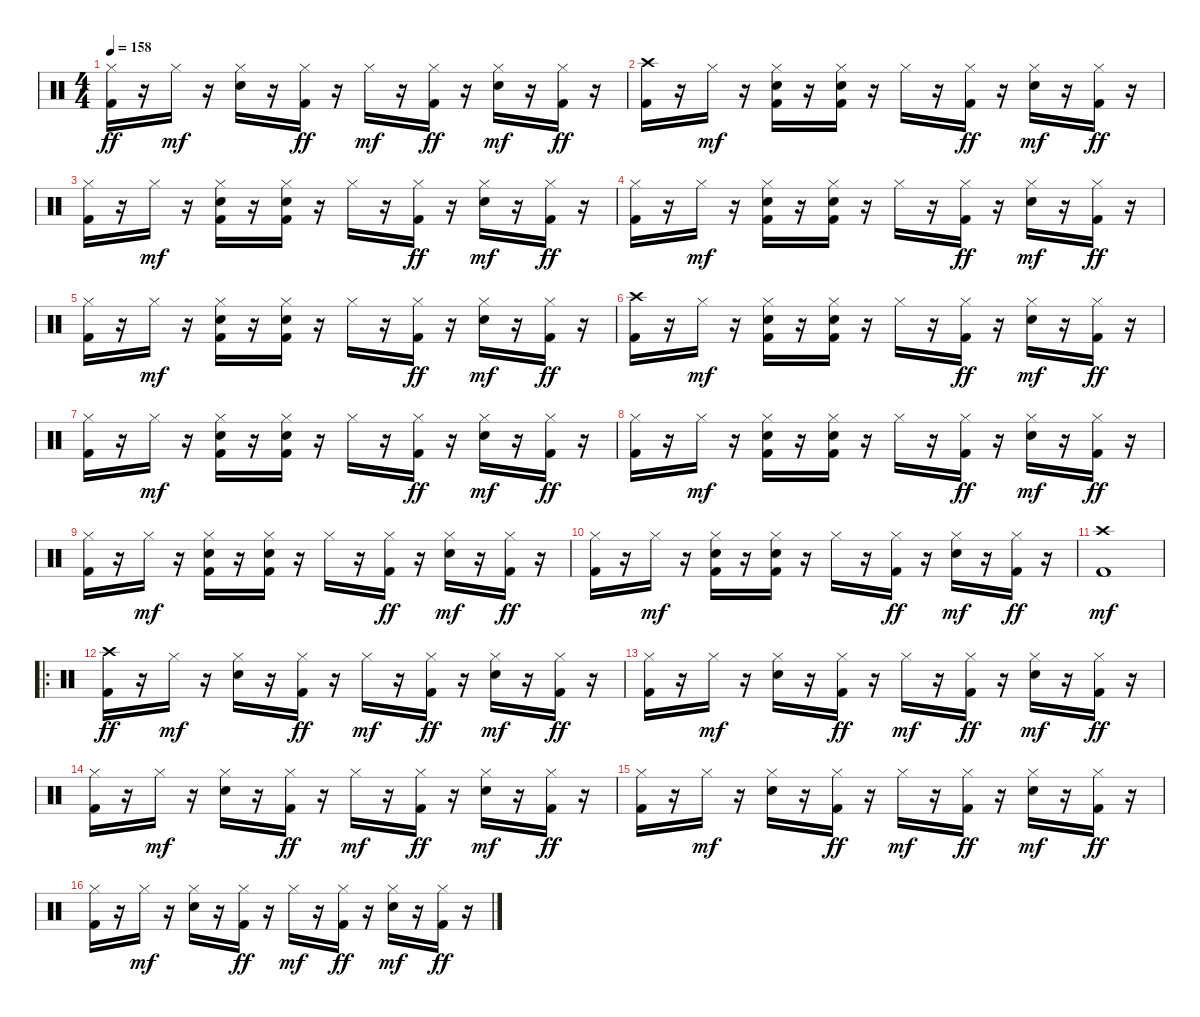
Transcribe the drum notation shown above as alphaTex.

\track ("   " "   ") {instrument percussion}
\staff
\articulation defaults
\ts (4 4)
\tempo 158
\clef neutral
\ks c
("Hi-Hat (closed)" "Kick (hit) 2").16{dy ff} r.16 "Hi-Hat (closed)".16{dy mf} r.16 ("Hi-Hat (closed)" "Electric Snare (hit)").16 r.16 ("Hi-Hat (closed)" "Kick (hit) 2").16{dy ff} r.16 "Hi-Hat (closed)".16{dy mf} r.16 ("Hi-Hat (closed)" "Kick (hit) 2").16{dy ff} r.16 ("Hi-Hat (closed)" "Electric Snare (hit)").16{dy mf} r.16 ("Hi-Hat (closed)" "Kick (hit) 2").16{dy ff} r.16 |
("Crash high (hit)" "Kick (hit) 2").16 r.16 "Hi-Hat (closed)".16{dy mf} r.16 ("Hi-Hat (closed)" "Electric Snare (hit)" "Kick (hit) 2").16 r.16 ("Hi-Hat (closed)" "Electric Snare (hit)" "Kick (hit) 2").16 r.16 "Hi-Hat (closed)".16 r.16 ("Hi-Hat (closed)" "Kick (hit) 2").16{dy ff} r.16 ("Hi-Hat (closed)" "Electric Snare (hit)").16{dy mf} r.16 ("Hi-Hat (closed)" "Kick (hit) 2").16{dy ff} r.16 |
("Hi-Hat (closed)" "Kick (hit) 2").16 r.16 "Hi-Hat (closed)".16{dy mf} r.16 ("Hi-Hat (closed)" "Electric Snare (hit)" "Kick (hit) 2").16 r.16 ("Hi-Hat (closed)" "Electric Snare (hit)" "Kick (hit) 2").16 r.16 "Hi-Hat (closed)".16 r.16 ("Hi-Hat (closed)" "Kick (hit) 2").16{dy ff} r.16 ("Hi-Hat (closed)" "Electric Snare (hit)").16{dy mf} r.16 ("Hi-Hat (closed)" "Kick (hit) 2").16{dy ff} r.16 |
("Hi-Hat (closed)" "Kick (hit) 2").16 r.16 "Hi-Hat (closed)".16{dy mf} r.16 ("Hi-Hat (closed)" "Electric Snare (hit)" "Kick (hit) 2").16 r.16 ("Hi-Hat (closed)" "Electric Snare (hit)" "Kick (hit) 2").16 r.16 "Hi-Hat (closed)".16 r.16 ("Hi-Hat (closed)" "Kick (hit) 2").16{dy ff} r.16 ("Hi-Hat (closed)" "Electric Snare (hit)").16{dy mf} r.16 ("Hi-Hat (closed)" "Kick (hit) 2").16{dy ff} r.16 |
("Hi-Hat (closed)" "Kick (hit) 2").16 r.16 "Hi-Hat (closed)".16{dy mf} r.16 ("Hi-Hat (closed)" "Electric Snare (hit)" "Kick (hit) 2").16 r.16 ("Hi-Hat (closed)" "Electric Snare (hit)" "Kick (hit) 2").16 r.16 "Hi-Hat (closed)".16 r.16 ("Hi-Hat (closed)" "Kick (hit) 2").16{dy ff} r.16 ("Hi-Hat (closed)" "Electric Snare (hit)").16{dy mf} r.16 ("Hi-Hat (closed)" "Kick (hit) 2").16{dy ff} r.16 |
("Crash high (hit)" "Kick (hit) 2").16 r.16 "Hi-Hat (closed)".16{dy mf} r.16 ("Hi-Hat (closed)" "Electric Snare (hit)" "Kick (hit) 2").16 r.16 ("Hi-Hat (closed)" "Electric Snare (hit)" "Kick (hit) 2").16 r.16 "Hi-Hat (closed)".16 r.16 ("Hi-Hat (closed)" "Kick (hit) 2").16{dy ff} r.16 ("Hi-Hat (closed)" "Electric Snare (hit)").16{dy mf} r.16 ("Hi-Hat (closed)" "Kick (hit) 2").16{dy ff} r.16 |
("Hi-Hat (closed)" "Kick (hit) 2").16 r.16 "Hi-Hat (closed)".16{dy mf} r.16 ("Hi-Hat (closed)" "Electric Snare (hit)" "Kick (hit) 2").16 r.16 ("Hi-Hat (closed)" "Electric Snare (hit)" "Kick (hit) 2").16 r.16 "Hi-Hat (closed)".16 r.16 ("Hi-Hat (closed)" "Kick (hit) 2").16{dy ff} r.16 ("Hi-Hat (closed)" "Electric Snare (hit)").16{dy mf} r.16 ("Hi-Hat (closed)" "Kick (hit) 2").16{dy ff} r.16 |
("Hi-Hat (closed)" "Kick (hit) 2").16 r.16 "Hi-Hat (closed)".16{dy mf} r.16 ("Hi-Hat (closed)" "Electric Snare (hit)" "Kick (hit) 2").16 r.16 ("Hi-Hat (closed)" "Electric Snare (hit)" "Kick (hit) 2").16 r.16 "Hi-Hat (closed)".16 r.16 ("Hi-Hat (closed)" "Kick (hit) 2").16{dy ff} r.16 ("Hi-Hat (closed)" "Electric Snare (hit)").16{dy mf} r.16 ("Hi-Hat (closed)" "Kick (hit) 2").16{dy ff} r.16 |
("Hi-Hat (closed)" "Kick (hit) 2").16 r.16 "Hi-Hat (closed)".16{dy mf} r.16 ("Hi-Hat (closed)" "Electric Snare (hit)" "Kick (hit) 2").16 r.16 ("Hi-Hat (closed)" "Electric Snare (hit)" "Kick (hit) 2").16 r.16 "Hi-Hat (closed)".16 r.16 ("Hi-Hat (closed)" "Kick (hit) 2").16{dy ff} r.16 ("Hi-Hat (closed)" "Electric Snare (hit)").16{dy mf} r.16 ("Hi-Hat (closed)" "Kick (hit) 2").16{dy ff} r.16 |
("Hi-Hat (closed)" "Kick (hit) 2").16 r.16 "Hi-Hat (closed)".16{dy mf} r.16 ("Hi-Hat (closed)" "Electric Snare (hit)" "Kick (hit) 2").16 r.16 ("Hi-Hat (closed)" "Electric Snare (hit)" "Kick (hit) 2").16 r.16 "Hi-Hat (closed)".16 r.16 ("Hi-Hat (closed)" "Kick (hit) 2").16{dy ff} r.16 ("Hi-Hat (closed)" "Electric Snare (hit)").16{dy mf} r.16 ("Hi-Hat (closed)" "Kick (hit) 2").16{dy ff} r.16 |
("Crash high (hit)" "Kick (hit) 2").1{dy mf} |
\ro
("Crash high (hit)" "Kick (hit) 2").16{dy ff} r.16 "Hi-Hat (closed)".16{dy mf} r.16 ("Hi-Hat (closed)" "Electric Snare (hit)").16 r.16 ("Hi-Hat (closed)" "Kick (hit) 2").16{dy ff} r.16 "Hi-Hat (closed)".16{dy mf} r.16 ("Hi-Hat (closed)" "Kick (hit) 2").16{dy ff} r.16 ("Hi-Hat (closed)" "Electric Snare (hit)").16{dy mf} r.16 ("Hi-Hat (closed)" "Kick (hit) 2").16{dy ff} r.16 |
("Hi-Hat (closed)" "Kick (hit) 2").16 r.16 "Hi-Hat (closed)".16{dy mf} r.16 ("Hi-Hat (closed)" "Electric Snare (hit)").16 r.16 ("Hi-Hat (closed)" "Kick (hit) 2").16{dy ff} r.16 "Hi-Hat (closed)".16{dy mf} r.16 ("Hi-Hat (closed)" "Kick (hit) 2").16{dy ff} r.16 ("Hi-Hat (closed)" "Electric Snare (hit)").16{dy mf} r.16 ("Hi-Hat (closed)" "Kick (hit) 2").16{dy ff} r.16 |
("Hi-Hat (closed)" "Kick (hit) 2").16 r.16 "Hi-Hat (closed)".16{dy mf} r.16 ("Hi-Hat (closed)" "Electric Snare (hit)").16 r.16 ("Hi-Hat (closed)" "Kick (hit) 2").16{dy ff} r.16 "Hi-Hat (closed)".16{dy mf} r.16 ("Hi-Hat (closed)" "Kick (hit) 2").16{dy ff} r.16 ("Hi-Hat (closed)" "Electric Snare (hit)").16{dy mf} r.16 ("Hi-Hat (closed)" "Kick (hit) 2").16{dy ff} r.16 |
("Hi-Hat (closed)" "Kick (hit) 2").16 r.16 "Hi-Hat (closed)".16{dy mf} r.16 ("Hi-Hat (closed)" "Electric Snare (hit)").16 r.16 ("Hi-Hat (closed)" "Kick (hit) 2").16{dy ff} r.16 "Hi-Hat (closed)".16{dy mf} r.16 ("Hi-Hat (closed)" "Kick (hit) 2").16{dy ff} r.16 ("Hi-Hat (closed)" "Electric Snare (hit)").16{dy mf} r.16 ("Hi-Hat (closed)" "Kick (hit) 2").16{dy ff} r.16 |
("Hi-Hat (closed)" "Kick (hit) 2").16 r.16 "Hi-Hat (closed)".16{dy mf} r.16 ("Hi-Hat (closed)" "Electric Snare (hit)").16 r.16 ("Hi-Hat (closed)" "Kick (hit) 2").16{dy ff} r.16 "Hi-Hat (closed)".16{dy mf} r.16 ("Hi-Hat (closed)" "Kick (hit) 2").16{dy ff} r.16 ("Hi-Hat (closed)" "Electric Snare (hit)").16{dy mf} r.16 ("Hi-Hat (closed)" "Kick (hit) 2").16{dy ff} r.16
